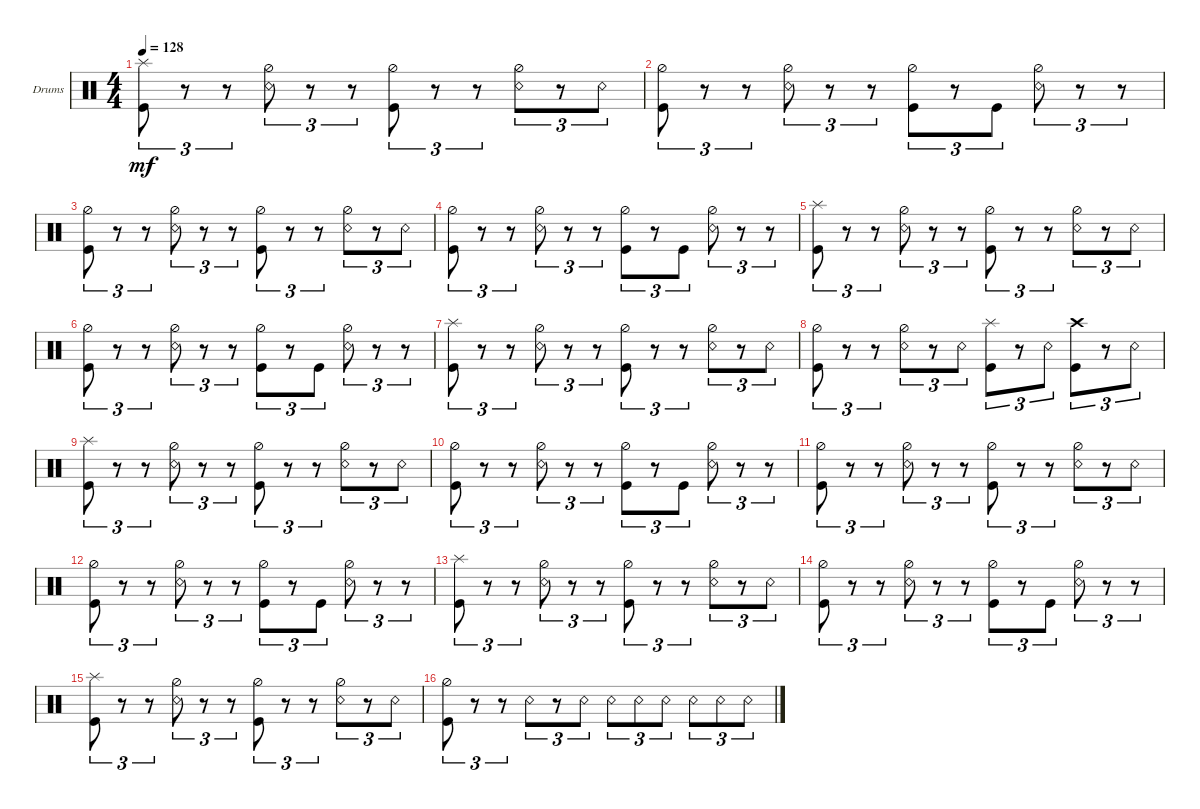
\defaultSystemsLayout 4
\bracketExtendMode groupsimilarinstruments
\firstSystemTrackNameOrientation horizontal
\otherSystemsTrackNameOrientation horizontal
\track ("Drumkit" "Drums") {instrument percussion}
\staff {score}
\articulation defaults
\ts (4 4)
\tempo 128
\clef neutral
\ks c
("Kick (hit)" "Splash (hit)").8{tu (3 2) dy mf} r.8{tu (3 2)} r.8{tu (3 2)} ("Snare (rim shot)" "Hi-Hat (half)").8{tu (3 2)} r.8{tu (3 2)} r.8{tu (3 2)} ("Kick (hit)" "Hi-Hat (half)").8{tu (3 2)} r.8{tu (3 2)} r.8{tu (3 2)} ("Snare (rim shot)" "Hi-Hat (half)").8{tu (3 2)} r.8{tu (3 2)} "Snare (rim shot)".8{tu (3 2)} |
("Kick (hit)" "Hi-Hat (half)").8{tu (3 2)} r.8{tu (3 2)} r.8{tu (3 2)} ("Snare (rim shot)" "Hi-Hat (half)").8{tu (3 2)} r.8{tu (3 2)} r.8{tu (3 2)} ("Kick (hit)" "Hi-Hat (half)").8{tu (3 2)} r.8{tu (3 2)} "Kick (hit)".8{tu (3 2)} ("Snare (rim shot)" "Hi-Hat (half)").8{tu (3 2)} r.8{tu (3 2)} r.8{tu (3 2)} |
("Kick (hit)" "Hi-Hat (half)").8{tu (3 2)} r.8{tu (3 2)} r.8{tu (3 2)} ("Snare (rim shot)" "Hi-Hat (half)").8{tu (3 2)} r.8{tu (3 2)} r.8{tu (3 2)} ("Kick (hit)" "Hi-Hat (half)").8{tu (3 2)} r.8{tu (3 2)} r.8{tu (3 2)} ("Snare (rim shot)" "Hi-Hat (half)").8{tu (3 2)} r.8{tu (3 2)} "Snare (rim shot)".8{tu (3 2)} |
("Kick (hit)" "Hi-Hat (half)").8{tu (3 2)} r.8{tu (3 2)} r.8{tu (3 2)} ("Snare (rim shot)" "Hi-Hat (half)").8{tu (3 2)} r.8{tu (3 2)} r.8{tu (3 2)} ("Kick (hit)" "Hi-Hat (half)").8{tu (3 2)} r.8{tu (3 2)} "Kick (hit)".8{tu (3 2)} ("Snare (rim shot)" "Hi-Hat (half)").8{tu (3 2)} r.8{tu (3 2)} r.8{tu (3 2)} |
("Kick (hit)" "Splash (hit)").8{tu (3 2)} r.8{tu (3 2)} r.8{tu (3 2)} ("Snare (rim shot)" "Hi-Hat (half)").8{tu (3 2)} r.8{tu (3 2)} r.8{tu (3 2)} ("Kick (hit)" "Hi-Hat (half)").8{tu (3 2)} r.8{tu (3 2)} r.8{tu (3 2)} ("Snare (rim shot)" "Hi-Hat (half)").8{tu (3 2)} r.8{tu (3 2)} "Snare (rim shot)".8{tu (3 2)} |
("Kick (hit)" "Hi-Hat (half)").8{tu (3 2)} r.8{tu (3 2)} r.8{tu (3 2)} ("Snare (rim shot)" "Hi-Hat (half)").8{tu (3 2)} r.8{tu (3 2)} r.8{tu (3 2)} ("Kick (hit)" "Hi-Hat (half)").8{tu (3 2)} r.8{tu (3 2)} "Kick (hit)".8{tu (3 2)} ("Snare (rim shot)" "Hi-Hat (half)").8{tu (3 2)} r.8{tu (3 2)} r.8{tu (3 2)} |
("Kick (hit)" "Splash (hit)").8{tu (3 2)} r.8{tu (3 2)} r.8{tu (3 2)} ("Snare (rim shot)" "Hi-Hat (half)").8{tu (3 2)} r.8{tu (3 2)} r.8{tu (3 2)} ("Kick (hit)" "Hi-Hat (half)").8{tu (3 2)} r.8{tu (3 2)} r.8{tu (3 2)} ("Snare (rim shot)" "Hi-Hat (half)").8{tu (3 2)} r.8{tu (3 2)} "Snare (rim shot)".8{tu (3 2)} |
("Kick (hit)" "Hi-Hat (half)").8{tu (3 2)} r.8{tu (3 2)} r.8{tu (3 2)} ("Snare (rim shot)" "Hi-Hat (half)").8{tu (3 2)} r.8{tu (3 2)} "Snare (rim shot)".8{tu (3 2)} ("Kick (hit)" "Splash (hit)").8{tu (3 2)} r.8{tu (3 2)} "Snare (rim shot)".8{tu (3 2)} ("Kick (hit)" "Crash high (hit)").8{tu (3 2)} r.8{tu (3 2)} "Snare (rim shot)".8{tu (3 2)} |
("Kick (hit)" "Splash (hit)").8{tu (3 2)} r.8{tu (3 2)} r.8{tu (3 2)} ("Snare (rim shot)" "Hi-Hat (half)").8{tu (3 2)} r.8{tu (3 2)} r.8{tu (3 2)} ("Kick (hit)" "Hi-Hat (half)").8{tu (3 2)} r.8{tu (3 2)} r.8{tu (3 2)} ("Snare (rim shot)" "Hi-Hat (half)").8{tu (3 2)} r.8{tu (3 2)} "Snare (rim shot)".8{tu (3 2)} |
("Kick (hit)" "Hi-Hat (half)").8{tu (3 2)} r.8{tu (3 2)} r.8{tu (3 2)} ("Snare (rim shot)" "Hi-Hat (half)").8{tu (3 2)} r.8{tu (3 2)} r.8{tu (3 2)} ("Kick (hit)" "Hi-Hat (half)").8{tu (3 2)} r.8{tu (3 2)} "Kick (hit)".8{tu (3 2)} ("Snare (rim shot)" "Hi-Hat (half)").8{tu (3 2)} r.8{tu (3 2)} r.8{tu (3 2)} |
("Kick (hit)" "Hi-Hat (half)").8{tu (3 2)} r.8{tu (3 2)} r.8{tu (3 2)} ("Snare (rim shot)" "Hi-Hat (half)").8{tu (3 2)} r.8{tu (3 2)} r.8{tu (3 2)} ("Kick (hit)" "Hi-Hat (half)").8{tu (3 2)} r.8{tu (3 2)} r.8{tu (3 2)} ("Snare (rim shot)" "Hi-Hat (half)").8{tu (3 2)} r.8{tu (3 2)} "Snare (rim shot)".8{tu (3 2)} |
("Kick (hit)" "Hi-Hat (half)").8{tu (3 2)} r.8{tu (3 2)} r.8{tu (3 2)} ("Snare (rim shot)" "Hi-Hat (half)").8{tu (3 2)} r.8{tu (3 2)} r.8{tu (3 2)} ("Kick (hit)" "Hi-Hat (half)").8{tu (3 2)} r.8{tu (3 2)} "Kick (hit)".8{tu (3 2)} ("Snare (rim shot)" "Hi-Hat (half)").8{tu (3 2)} r.8{tu (3 2)} r.8{tu (3 2)} |
("Kick (hit)" "Splash (hit)").8{tu (3 2)} r.8{tu (3 2)} r.8{tu (3 2)} ("Snare (rim shot)" "Hi-Hat (half)").8{tu (3 2)} r.8{tu (3 2)} r.8{tu (3 2)} ("Kick (hit)" "Hi-Hat (half)").8{tu (3 2)} r.8{tu (3 2)} r.8{tu (3 2)} ("Snare (rim shot)" "Hi-Hat (half)").8{tu (3 2)} r.8{tu (3 2)} "Snare (rim shot)".8{tu (3 2)} |
("Kick (hit)" "Hi-Hat (half)").8{tu (3 2)} r.8{tu (3 2)} r.8{tu (3 2)} ("Snare (rim shot)" "Hi-Hat (half)").8{tu (3 2)} r.8{tu (3 2)} r.8{tu (3 2)} ("Kick (hit)" "Hi-Hat (half)").8{tu (3 2)} r.8{tu (3 2)} "Kick (hit)".8{tu (3 2)} ("Snare (rim shot)" "Hi-Hat (half)").8{tu (3 2)} r.8{tu (3 2)} r.8{tu (3 2)} |
("Kick (hit)" "Splash (hit)").8{tu (3 2)} r.8{tu (3 2)} r.8{tu (3 2)} ("Snare (rim shot)" "Hi-Hat (half)").8{tu (3 2)} r.8{tu (3 2)} r.8{tu (3 2)} ("Kick (hit)" "Hi-Hat (half)").8{tu (3 2)} r.8{tu (3 2)} r.8{tu (3 2)} ("Snare (rim shot)" "Hi-Hat (half)").8{tu (3 2)} r.8{tu (3 2)} "Snare (rim shot)".8{tu (3 2)} |
("Kick (hit)" "Hi-Hat (half)").8{tu (3 2)} r.8{tu (3 2)} r.8{tu (3 2)} "Snare (rim shot)".8{tu (3 2)} r.8{tu (3 2)} "Snare (rim shot)".8{tu (3 2)} "Snare (rim shot)".8{tu (3 2)} "Snare (rim shot)".8{tu (3 2)} "Snare (rim shot)".8{tu (3 2)} "Snare (rim shot)".8{tu (3 2)} "Snare (rim shot)".8{tu (3 2)} "Snare (rim shot)".8{tu (3 2)}
